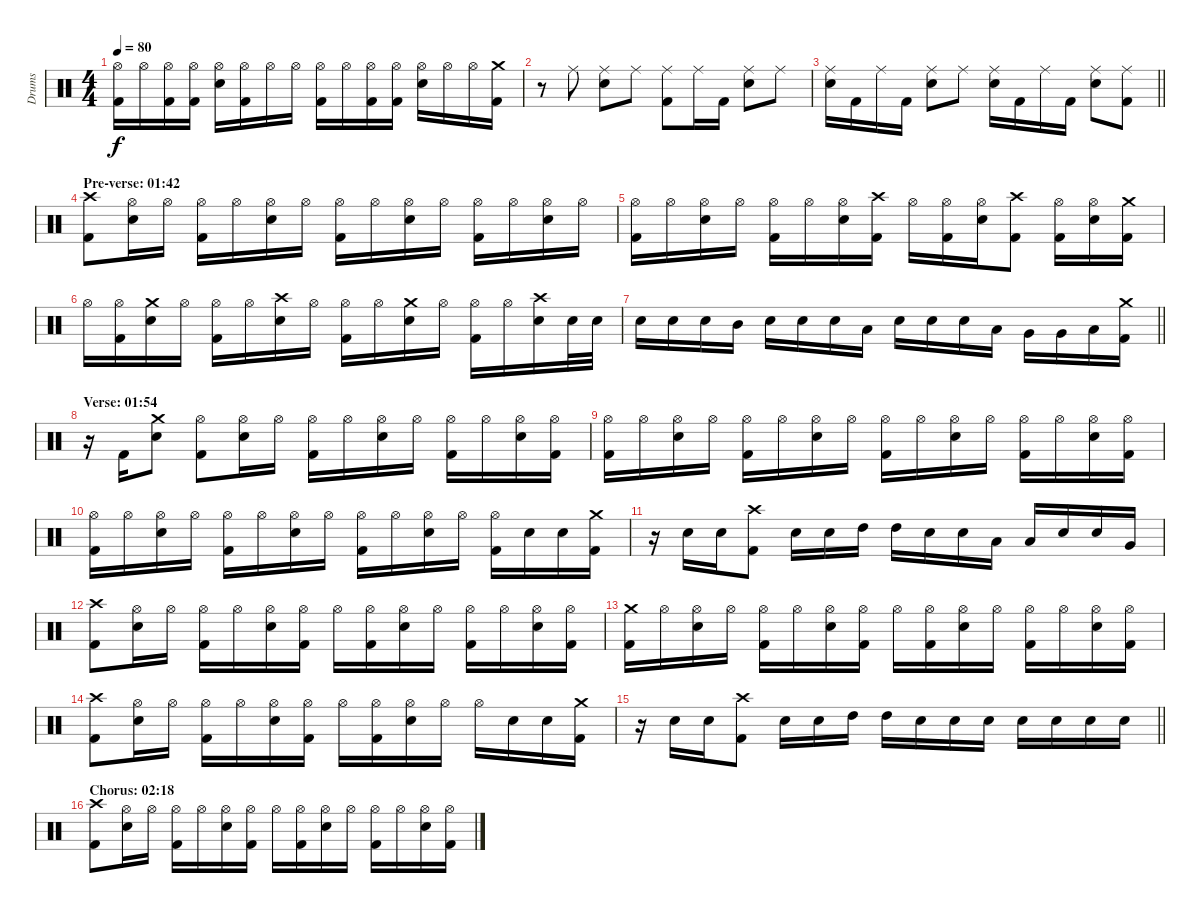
\track ("Drums" "Drums") {instrument percussion}
\staff {score}
\articulation defaults
\ts (4 4)
\tempo 80
\clef neutral
\ks c
("Hi-Hat (open)" "Kick (hit) 2").16{dy f} "Hi-Hat (open)".16 ("Hi-Hat (open)" "Kick (hit) 2").16 ("Hi-Hat (open)" "Kick (hit) 2").16 ("Hi-Hat (open)" "Electric Snare (hit)").16 ("Hi-Hat (open)" "Kick (hit) 2").16 "Hi-Hat (open)".16 "Hi-Hat (open)".16 ("Hi-Hat (open)" "Kick (hit) 2").16 "Hi-Hat (open)".16 ("Hi-Hat (open)" "Kick (hit) 2").16 ("Hi-Hat (open)" "Kick (hit) 2").16 ("Hi-Hat (open)" "Electric Snare (hit)").16 "Hi-Hat (open)".16 "Hi-Hat (open)".16 ("Crash medium (hit)" "Kick (hit) 2").16 |
r.8 "Ride (middle)".8 ("Ride (middle)" "Electric Snare (hit)").8 "Ride (middle)".8 ("Ride (middle)" "Kick (hit) 2").8 "Ride (middle)".16 "Kick (hit) 2".16 ("Ride (middle)" "Electric Snare (hit)").8 "Ride (middle)".8 |
\barLineRight lightlight
("Ride (middle)" "Electric Snare (hit)").16 "Kick (hit) 2".16 "Ride (middle)".16 "Kick (hit) 2".16 ("Ride (middle)" "Electric Snare (hit)").8 "Ride (middle)".8 ("Ride (middle)" "Electric Snare (hit)").16 "Kick (hit) 2".16 "Ride (middle)".16 "Kick (hit) 2".16 ("Ride (middle)" "Electric Snare (hit)").8 ("Ride (middle)" "Kick (hit) 2").8 |
\section ("" "Pre-verse: 01:42")
("Crash high (hit)" "Kick (hit) 2").8 ("Hi-Hat (open)" "Electric Snare (hit)").16 "Hi-Hat (open)".16 ("Hi-Hat (open)" "Kick (hit) 2").16 "Hi-Hat (open)".16 ("Hi-Hat (open)" "Electric Snare (hit)").16 "Hi-Hat (open)".16 ("Hi-Hat (open)" "Kick (hit) 2").16 "Hi-Hat (open)".16 ("Hi-Hat (open)" "Electric Snare (hit)").16 "Hi-Hat (open)".16 ("Hi-Hat (open)" "Kick (hit) 2").16 "Hi-Hat (open)".16 ("Hi-Hat (open)" "Electric Snare (hit)").16 "Hi-Hat (open)".16 |
("Hi-Hat (open)" "Kick (hit) 2").16 "Hi-Hat (open)".16 ("Hi-Hat (open)" "Electric Snare (hit)").16 "Hi-Hat (open)".16 ("Hi-Hat (open)" "Kick (hit) 2").16 "Hi-Hat (open)".16 ("Hi-Hat (open)" "Electric Snare (hit)").16 ("Crash high (hit)" "Kick (hit) 2").16 "Hi-Hat (open)".16 ("Hi-Hat (open)" "Kick (hit) 2").16 ("Hi-Hat (open)" "Electric Snare (hit)").16 ("Crash high (hit)" "Kick (hit) 2").8 ("Hi-Hat (open)" "Kick (hit) 2").16 ("Hi-Hat (open)" "Electric Snare (hit)").16 ("Crash medium (hit)" "Kick (hit) 2").16 |
"Hi-Hat (open)".16 ("Hi-Hat (open)" "Kick (hit) 2").16 ("Crash medium (hit)" "Electric Snare (hit)").16 "Hi-Hat (open)".16 ("Hi-Hat (open)" "Kick (hit) 2").16 "Hi-Hat (open)".16 ("Crash high (hit)" "Electric Snare (hit)").16 "Hi-Hat (open)".16 ("Hi-Hat (open)" "Kick (hit) 2").16 "Hi-Hat (open)".16 ("Crash medium (hit)" "Electric Snare (hit)").16 "Hi-Hat (open)".16 ("Hi-Hat (open)" "Kick (hit) 2").16 "Hi-Hat (open)".16 ("Crash high (hit)" "Electric Snare (hit)").16 "Electric Snare (hit)".32 "Electric Snare (hit)".32 |
\barLineRight lightlight "Electric Snare (hit)".16 "Electric Snare (hit)".16 "Electric Snare (hit)".16 "Mid Tom (hit)".16 "Electric Snare (hit)".16 "Electric Snare (hit)".16 "Electric Snare (hit)".16 "Low Tom (hit)".16 "Electric Snare (hit)".16 "Electric Snare (hit)".16 "Electric Snare (hit)".16 "Low Tom (hit)".16 "Very Low Tom (hit)".16 "Very Low Tom (hit)".16 "Low Floor Tom (hit)".16
("Crash medium (hit)" "Kick (hit) 2").16 |
\section ("" "Verse: 01:54")
r.16 "Kick (hit) 2".16 ("Crash medium (hit)" "Electric Snare (hit)").8 ("Hi-Hat (open)" "Kick (hit) 2").8 ("Hi-Hat (open)" "Electric Snare (hit)").16 "Hi-Hat (open)".16 ("Hi-Hat (open)" "Kick (hit) 2").16 "Hi-Hat (open)".16 ("Hi-Hat (open)" "Electric Snare (hit)").16 "Hi-Hat (open)".16 ("Hi-Hat (open)" "Kick (hit) 2").16 "Hi-Hat (open)".16 ("Hi-Hat (open)" "Electric Snare (hit)").16 ("Hi-Hat (open)" "Kick (hit) 2").16 |
("Hi-Hat (open)" "Kick (hit) 2").16 "Hi-Hat (open)".16 ("Hi-Hat (open)" "Electric Snare (hit)").16 "Hi-Hat (open)".16 ("Hi-Hat (open)" "Kick (hit) 2").16 "Hi-Hat (open)".16 ("Hi-Hat (open)" "Electric Snare (hit)").16 "Hi-Hat (open)".16 ("Hi-Hat (open)" "Kick (hit) 2").16 "Hi-Hat (open)".16 ("Hi-Hat (open)" "Electric Snare (hit)").16 "Hi-Hat (open)".16 ("Hi-Hat (open)" "Kick (hit) 2").16 "Hi-Hat (open)".16 ("Hi-Hat (open)" "Electric Snare (hit)").16 ("Hi-Hat (open)" "Kick (hit) 2").16 |
("Hi-Hat (open)" "Kick (hit) 2").16 "Hi-Hat (open)".16 ("Hi-Hat (open)" "Electric Snare (hit)").16 "Hi-Hat (open)".16 ("Hi-Hat (open)" "Kick (hit) 2").16 "Hi-Hat (open)".16 ("Hi-Hat (open)" "Electric Snare (hit)").16 "Hi-Hat (open)".16 ("Hi-Hat (open)" "Kick (hit) 2").16 "Hi-Hat (open)".16 ("Hi-Hat (open)" "Electric Snare (hit)").16 "Hi-Hat (open)".16 ("Hi-Hat (open)" "Kick (hit) 2").16 "Electric Snare (hit)".16 "Electric Snare (hit)".16 ("Crash medium (hit)" "Kick (hit) 2").16 |
r.16 "Electric Snare (hit)".16 "Electric Snare (hit)".16 ("Crash high (hit)" "Kick (hit) 2").8 "Electric Snare (hit)".16 "Electric Snare (hit)".16 "High Tom (hit)".16 "High Tom (hit)".16 "Electric Snare (hit)".16 "Electric Snare (hit)".16 "Low Tom (hit)".16 "Low Tom (hit)".16 "Electric Snare (hit)".16 "Electric Snare (hit)".16 "Very Low Tom (hit)".16 |
("Crash high (hit)" "Kick (hit) 2").8 ("Hi-Hat (open)" "Electric Snare (hit)").16 "Hi-Hat (open)".16 ("Hi-Hat (open)" "Kick (hit) 2").16 "Hi-Hat (open)".16 ("Hi-Hat (open)" "Electric Snare (hit)").16 ("Hi-Hat (open)" "Kick (hit) 2").16 "Hi-Hat (open)".16 ("Hi-Hat (open)" "Kick (hit) 2").16 ("Hi-Hat (open)" "Electric Snare (hit)").16 "Hi-Hat (open)".16 ("Hi-Hat (open)" "Kick (hit) 2").16 "Hi-Hat (open)".16 ("Hi-Hat (open)" "Electric Snare (hit)").16 ("Hi-Hat (open)" "Kick (hit) 2").16 |
("Crash medium (hit)" "Kick (hit) 2").16 "Hi-Hat (open)".16 ("Hi-Hat (open)" "Electric Snare (hit)").16 "Hi-Hat (open)".16 ("Hi-Hat (open)" "Kick (hit) 2").16 "Hi-Hat (open)".16 ("Hi-Hat (open)" "Electric Snare (hit)").16 ("Hi-Hat (open)" "Kick (hit) 2").16 "Hi-Hat (open)".16 ("Hi-Hat (open)" "Kick (hit) 2").16 ("Hi-Hat (open)" "Electric Snare (hit)").16 "Hi-Hat (open)".16 ("Hi-Hat (open)" "Kick (hit) 2").16 "Hi-Hat (open)".16 ("Hi-Hat (open)" "Electric Snare (hit)").16 ("Hi-Hat (open)" "Kick (hit) 2").16 |
("Crash high (hit)" "Kick (hit) 2").8 ("Hi-Hat (open)" "Electric Snare (hit)").16 "Hi-Hat (open)".16 ("Hi-Hat (open)" "Kick (hit) 2").16 "Hi-Hat (open)".16 ("Hi-Hat (open)" "Electric Snare (hit)").16 ("Hi-Hat (open)" "Kick (hit) 2").16 "Hi-Hat (open)".16 ("Hi-Hat (open)" "Kick (hit) 2").16 ("Hi-Hat (open)" "Electric Snare (hit)").16 "Hi-Hat (open)".16 "Hi-Hat (open)".16 "Electric Snare (hit)".16 "Electric Snare (hit)".16 ("Crash medium (hit)" "Kick (hit) 2").16 |
\barLineRight lightlight
r.16 "Electric Snare (hit)".16 "Electric Snare (hit)".16 ("Crash high (hit)" "Kick (hit) 2").8 "Electric Snare (hit)".16 "Electric Snare (hit)".16 "High Tom (hit)".16 "High Tom (hit)".16 "Electric Snare (hit)".16 "Electric Snare (hit)".16 "Electric Snare (hit)".16 "Electric Snare (hit)".16 "Electric Snare (hit)".16 "Electric Snare (hit)".16 "Electric Snare (hit)".16 |
\section ("" "Chorus: 02:18")
("Crash high (hit)" "Kick (hit) 2").8 ("Hi-Hat (open)" "Electric Snare (hit)").16 "Hi-Hat (open)".16 ("Hi-Hat (open)" "Kick (hit) 2").16 "Hi-Hat (open)".16 ("Hi-Hat (open)" "Electric Snare (hit)").16 ("Hi-Hat (open)" "Kick (hit) 2").16 "Hi-Hat (open)".16 ("Hi-Hat (open)" "Kick (hit) 2").16 ("Hi-Hat (open)" "Electric Snare (hit)").16 "Hi-Hat (open)".16 ("Hi-Hat (open)" "Kick (hit) 2").16 "Hi-Hat (open)".16 ("Hi-Hat (open)" "Electric Snare (hit)").16 ("Hi-Hat (open)" "Kick (hit) 2").16
